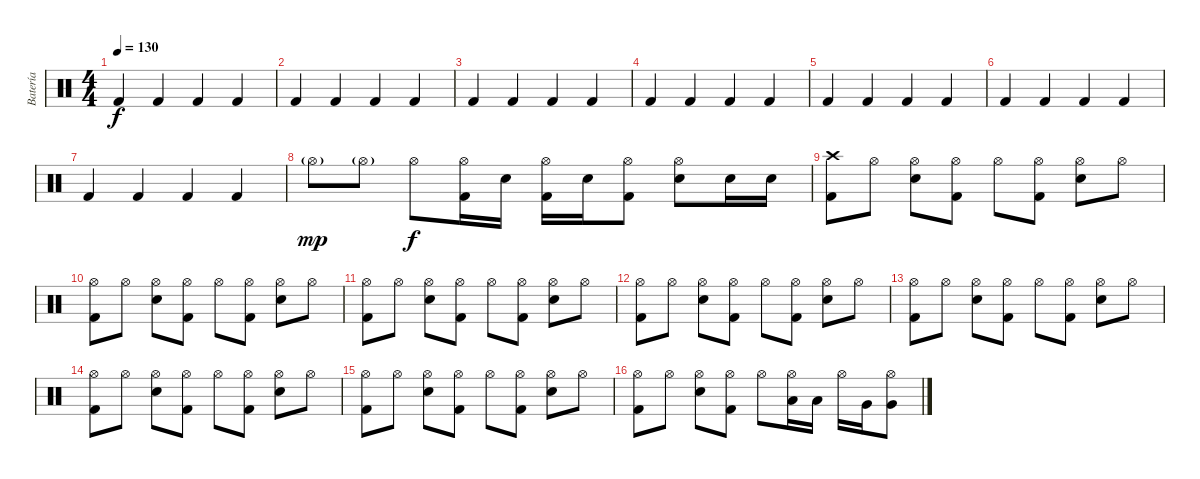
\track ("Batería" "Batería") {instrument percussion}
\staff {score}
\articulation defaults
\ts (4 4)
\tempo 130
\clef neutral
\ks c "Kick (hit) 2".4{dy f} "Kick (hit) 2".4 "Kick (hit) 2".4 "Kick (hit) 2".4
|
"Kick (hit) 2".4 "Kick (hit) 2".4 "Kick (hit) 2".4 "Kick (hit) 2".4 |
"Kick (hit) 2".4 "Kick (hit) 2".4 "Kick (hit) 2".4 "Kick (hit) 2".4 |
"Kick (hit) 2".4 "Kick (hit) 2".4 "Kick (hit) 2".4 "Kick (hit) 2".4 |
"Kick (hit) 2".4 "Kick (hit) 2".4 "Kick (hit) 2".4 "Kick (hit) 2".4 |
"Kick (hit) 2".4 "Kick (hit) 2".4 "Kick (hit) 2".4 "Kick (hit) 2".4 |
"Kick (hit) 2".4 "Kick (hit) 2".4 "Kick (hit) 2".4 "Kick (hit) 2".4 |
"Hi-Hat (open)"{g}.8{dy mp} "Hi-Hat (open)"{g}.8 "Hi-Hat (open)".8{dy f} ("Hi-Hat (open)" "Kick (hit) 2").16 "Snare (hit) 2".16 ("Hi-Hat (open)" "Kick (hit) 2").16 "Snare (hit) 2".16 ("Hi-Hat (open)" "Kick (hit) 2").8 ("Hi-Hat (open)" "Snare (hit) 2").8 "Snare (hit) 2".16 "Snare (hit) 2".16 |
("Crash high (hit)" "Kick (hit) 2").8 "Hi-Hat (open)".8 ("Hi-Hat (open)" "Snare (hit) 2").8 ("Hi-Hat (open)" "Kick (hit) 2").8 "Hi-Hat (open)".8 ("Hi-Hat (open)" "Kick (hit) 2").8 ("Hi-Hat (open)" "Snare (hit) 2").8 "Hi-Hat (open)".8 |
("Hi-Hat (open)" "Kick (hit) 2").8 "Hi-Hat (open)".8 ("Hi-Hat (open)" "Snare (hit) 2").8 ("Hi-Hat (open)" "Kick (hit) 2").8 "Hi-Hat (open)".8 ("Hi-Hat (open)" "Kick (hit) 2").8 ("Hi-Hat (open)" "Snare (hit) 2").8 "Hi-Hat (open)".8 |
("Hi-Hat (open)" "Kick (hit) 2").8 "Hi-Hat (open)".8 ("Hi-Hat (open)" "Snare (hit) 2").8 ("Hi-Hat (open)" "Kick (hit) 2").8 "Hi-Hat (open)".8 ("Hi-Hat (open)" "Kick (hit) 2").8 ("Hi-Hat (open)" "Snare (hit) 2").8 "Hi-Hat (open)".8 |
("Hi-Hat (open)" "Kick (hit) 2").8 "Hi-Hat (open)".8 ("Hi-Hat (open)" "Snare (hit) 2").8 ("Hi-Hat (open)" "Kick (hit) 2").8 "Hi-Hat (open)".8 ("Hi-Hat (open)" "Kick (hit) 2").8 ("Hi-Hat (open)" "Snare (hit) 2").8 "Hi-Hat (open)".8 |
("Hi-Hat (open)" "Kick (hit) 2").8 "Hi-Hat (open)".8 ("Hi-Hat (open)" "Snare (hit) 2").8 ("Hi-Hat (open)" "Kick (hit) 2").8 "Hi-Hat (open)".8 ("Hi-Hat (open)" "Kick (hit) 2").8 ("Hi-Hat (open)" "Snare (hit) 2").8 "Hi-Hat (open)".8 |
("Hi-Hat (open)" "Kick (hit) 2").8 "Hi-Hat (open)".8 ("Hi-Hat (open)" "Snare (hit) 2").8 ("Hi-Hat (open)" "Kick (hit) 2").8 "Hi-Hat (open)".8 ("Hi-Hat (open)" "Kick (hit) 2").8 ("Hi-Hat (open)" "Snare (hit) 2").8 "Hi-Hat (open)".8 |
("Hi-Hat (open)" "Kick (hit) 2").8 "Hi-Hat (open)".8 ("Hi-Hat (open)" "Snare (hit) 2").8 ("Hi-Hat (open)" "Kick (hit) 2").8 "Hi-Hat (open)".8 ("Hi-Hat (open)" "Kick (hit) 2").8 ("Hi-Hat (open)" "Snare (hit) 2").8 "Hi-Hat (open)".8 |
("Hi-Hat (open)" "Kick (hit) 2").8 "Hi-Hat (open)".8 ("Hi-Hat (open)" "Snare (hit) 2").8 ("Hi-Hat (open)" "Kick (hit) 2").8 "Hi-Hat (open)".8 ("Low Tom (hit)" "Hi-Hat (open)").16 "Low Tom (hit)".16 "Hi-Hat (open)".16 "Very Low Tom (hit)".16 ("Very Low Tom (hit)" "Hi-Hat (open)").8
